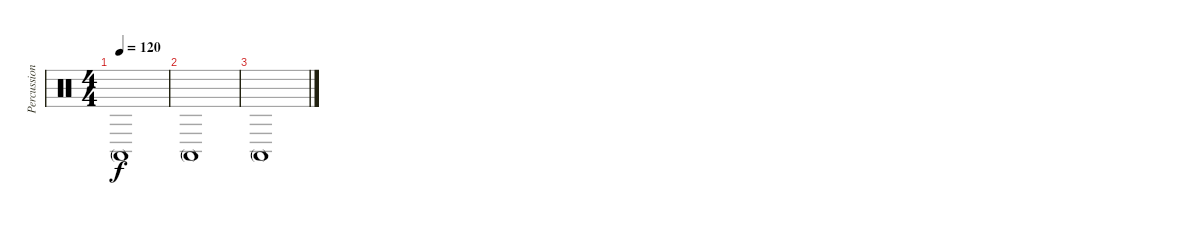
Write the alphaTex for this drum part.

\track ("Percussion" "Percussion") {instrument percussion}
\staff {score}
\articulation defaults
\ts (4 4)
\tempo 120
\clef neutral
\ks c "Conga high (mute)".1{dy f}
|
"Conga high (mute)".1 |
"Conga high (mute)".1
